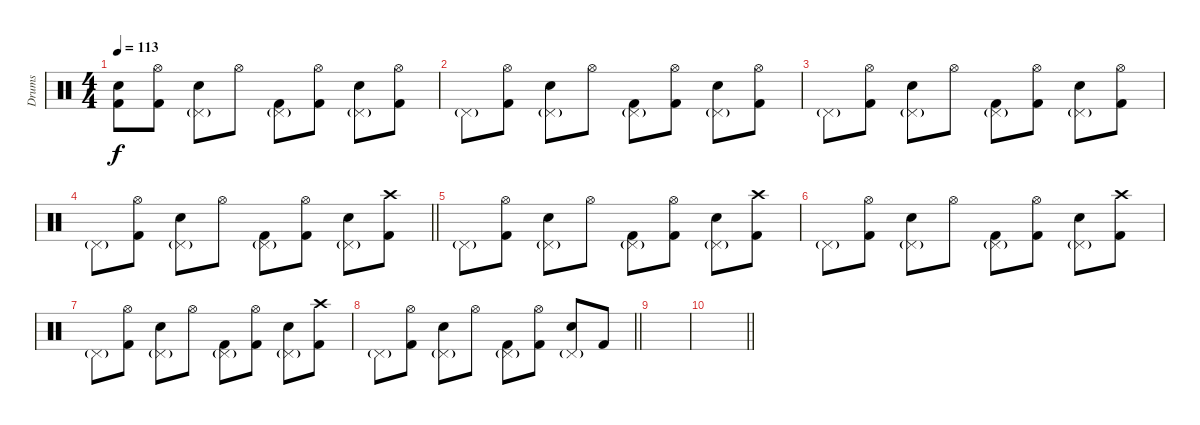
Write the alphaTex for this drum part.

\track ("Drums" "Drums") {instrument percussion}
\staff {score}
\articulation defaults
\ts (4 4)
\section ("" "")
\tempo 113
\clef neutral
\ks c
("Snare (hit)"{t} "Kick (hit) 2"{t}).8{dy f} ("Hi-Hat (open)" "Kick (hit) 2").8 ("Electric Snare (hit)" "Pedal Hi-Hat (hit)"{g}).8 "Hi-Hat (open)".8 ("Kick (hit) 2" "Pedal Hi-Hat (hit)"{g}).8 ("Hi-Hat (open)" "Kick (hit) 2").8 ("Electric Snare (hit)" "Pedal Hi-Hat (hit)"{g}).8 ("Hi-Hat (open)" "Kick (hit) 2").8 |
"Pedal Hi-Hat (hit)"{g}.8 ("Hi-Hat (open)" "Kick (hit) 2").8 ("Electric Snare (hit)" "Pedal Hi-Hat (hit)"{g}).8 "Hi-Hat (open)".8 ("Kick (hit) 2" "Pedal Hi-Hat (hit)"{g}).8 ("Hi-Hat (open)" "Kick (hit) 2").8 ("Electric Snare (hit)" "Pedal Hi-Hat (hit)"{g}).8 ("Hi-Hat (open)" "Kick (hit) 2").8 |
"Pedal Hi-Hat (hit)"{g}.8 ("Hi-Hat (open)" "Kick (hit) 2").8 ("Electric Snare (hit)" "Pedal Hi-Hat (hit)"{g}).8 "Hi-Hat (open)".8 ("Kick (hit) 2" "Pedal Hi-Hat (hit)"{g}).8 ("Hi-Hat (open)" "Kick (hit) 2").8 ("Electric Snare (hit)" "Pedal Hi-Hat (hit)"{g}).8 ("Hi-Hat (open)" "Kick (hit) 2").8 |
\barLineRight lightlight "Pedal Hi-Hat (hit)"{g}.8
("Hi-Hat (open)" "Kick (hit) 2").8 ("Electric Snare (hit)" "Pedal Hi-Hat (hit)"{g}).8 "Hi-Hat (open)".8 ("Kick (hit) 2" "Pedal Hi-Hat (hit)"{g}).8 ("Hi-Hat (open)" "Kick (hit) 2").8 ("Electric Snare (hit)" "Pedal Hi-Hat (hit)"{g}).8 ("Crash high (hit)" "Kick (hit) 2").8 |
\section ("" "")
"Pedal Hi-Hat (hit)"{g}.8 ("Hi-Hat (open)" "Kick (hit) 2").8 ("Electric Snare (hit)" "Pedal Hi-Hat (hit)"{g}).8 "Hi-Hat (open)".8 ("Kick (hit) 2" "Pedal Hi-Hat (hit)"{g}).8 ("Hi-Hat (open)" "Kick (hit) 2").8 ("Electric Snare (hit)" "Pedal Hi-Hat (hit)"{g}).8 ("Crash high (hit)" "Kick (hit) 2").8 |
"Pedal Hi-Hat (hit)"{g}.8 ("Hi-Hat (open)" "Kick (hit) 2").8 ("Electric Snare (hit)" "Pedal Hi-Hat (hit)"{g}).8 "Hi-Hat (open)".8 ("Kick (hit) 2" "Pedal Hi-Hat (hit)"{g}).8 ("Hi-Hat (open)" "Kick (hit) 2").8 ("Electric Snare (hit)" "Pedal Hi-Hat (hit)"{g}).8 ("Crash high (hit)" "Kick (hit) 2").8 |
"Pedal Hi-Hat (hit)"{g}.8 ("Hi-Hat (open)" "Kick (hit) 2").8 ("Electric Snare (hit)" "Pedal Hi-Hat (hit)"{g}).8 "Hi-Hat (open)".8 ("Kick (hit) 2" "Pedal Hi-Hat (hit)"{g}).8 ("Hi-Hat (open)" "Kick (hit) 2").8 ("Electric Snare (hit)" "Pedal Hi-Hat (hit)"{g}).8 ("Crash high (hit)" "Kick (hit) 2").8 |
\barLineRight lightlight "Pedal Hi-Hat (hit)"{g}.8
("Hi-Hat (open)" "Kick (hit) 2").8 ("Electric Snare (hit)" "Pedal Hi-Hat (hit)"{g}).8 "Hi-Hat (open)".8 ("Kick (hit) 2" "Pedal Hi-Hat (hit)"{g}).8 ("Hi-Hat (open)" "Kick (hit) 2").8 ("Electric Snare (hit)" "Pedal Hi-Hat (hit)"{g}).8 "Kick (hit) 2".8 |
\section ("" "")
|
\barLineRight lightlight
